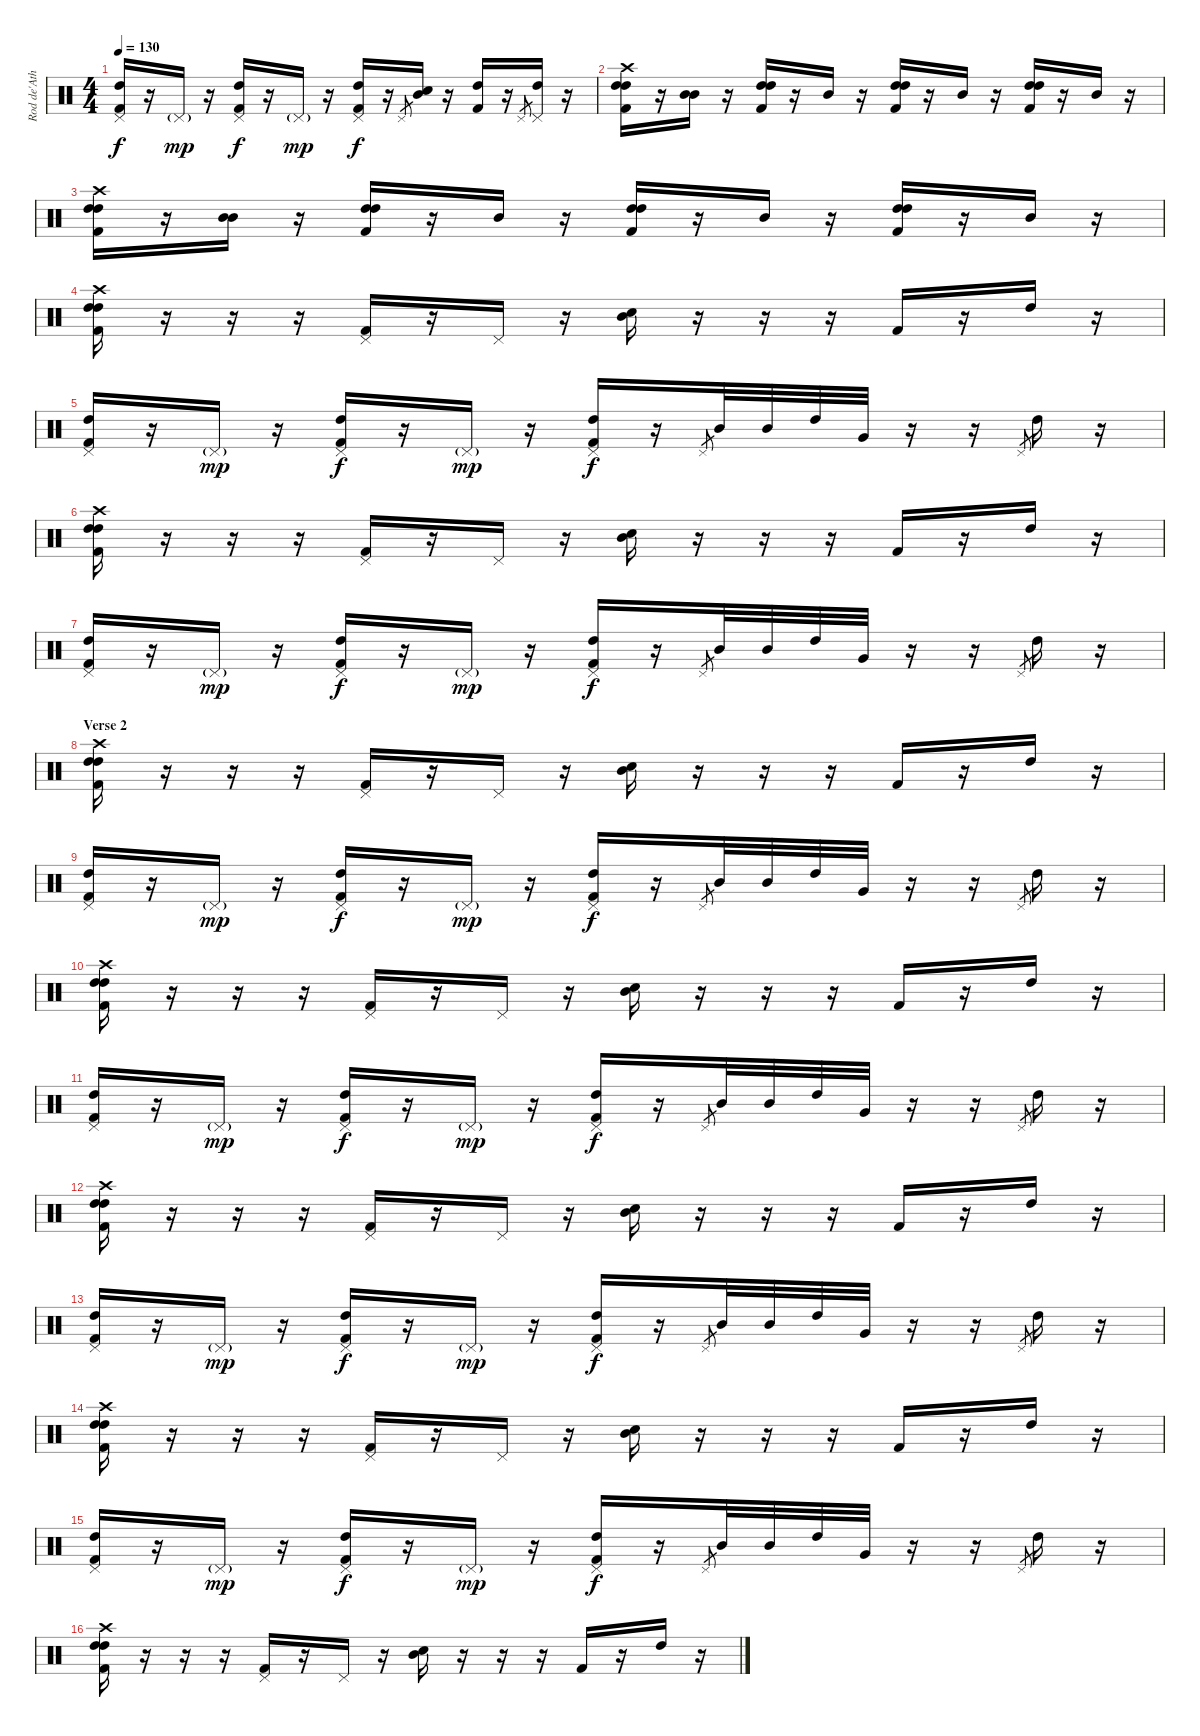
\track ("Rod de'Ath" "Rod de'Ath") {instrument percussion}
\staff {score}
\articulation defaults
\ts (4 4)
\tempo 130
\clef neutral
\ks c
("Pedal Hi-Hat (hit)" "High Tom (hit)" "Kick (hit) 2").16{dy f} r.16 "Pedal Hi-Hat (hit)"{g}.16{dy mp} r.16 ("Pedal Hi-Hat (hit)" "High Tom (hit)" "Kick (hit) 2").16{dy f} r.16 "Pedal Hi-Hat (hit)"{g}.16{dy mp} r.16 ("Pedal Hi-Hat (hit)" "High Tom (hit)" "Kick (hit) 2").16{dy f} r.16 "Pedal Hi-Hat (hit)".8{gr} ("Electric Snare (hit)" "Mid Tom (hit)").16 r.16 ("High Tom (hit)" "Kick (hit) 2").16 r.16 "Pedal Hi-Hat (hit)".8{gr} ("Pedal Hi-Hat (hit)" "High Tom (hit)").16 r.16 |
("Crash high (hit)" "High Tom (hit)" "High Tom (hit)" "Kick (hit) 2").16 r.16 ("Mid Tom (hit)" "Mid Tom (hit)").16 r.16 ("High Tom (hit)" "High Tom (hit)" "Kick (hit) 2").16 r.16 "Mid Tom (hit)".16 r.16 ("High Tom (hit)" "High Tom (hit)" "Kick (hit) 2").16 r.16 "Mid Tom (hit)".16 r.16 ("High Tom (hit)" "High Tom (hit)" "Kick (hit) 2").16 r.16 "Mid Tom (hit)".16 r.16 |
("Crash high (hit)" "High Tom (hit)" "High Tom (hit)" "Kick (hit) 2").16 r.16 ("Mid Tom (hit)" "Mid Tom (hit)").16 r.16 ("High Tom (hit)" "High Tom (hit)" "Kick (hit) 2").16 r.16 "Mid Tom (hit)".16 r.16 ("High Tom (hit)" "High Tom (hit)" "Kick (hit) 2").16 r.16 "Mid Tom (hit)".16 r.16 ("High Tom (hit)" "High Tom (hit)" "Kick (hit) 2").16 r.16 "Mid Tom (hit)".16 r.16 |
("Crash high (hit)" "High Tom (hit)" "High Tom (hit)" "Kick (hit) 2").16 r.16 r.16 r.16 ("Pedal Hi-Hat (hit)" "Kick (hit) 2").16 r.16 "Pedal Hi-Hat (hit)".16 r.16 ("Electric Snare (hit)" "Mid Tom (hit)").16 r.16 r.16 r.16 "Kick (hit) 2".16 r.16 "High Tom (hit)".16 r.16 |
("Pedal Hi-Hat (hit)" "High Tom (hit)" "Kick (hit) 2").16 r.16 "Pedal Hi-Hat (hit)"{g}.16{dy mp} r.16 ("Pedal Hi-Hat (hit)" "High Tom (hit)" "Kick (hit) 2").16{dy f} r.16 "Pedal Hi-Hat (hit)"{g}.16{dy mp} r.16 ("Pedal Hi-Hat (hit)" "High Tom (hit)" "Kick (hit) 2").16{dy f} r.16 "Pedal Hi-Hat (hit)".8{gr} "Mid Tom (hit)".32 "Mid Tom (hit)".32 "High Tom (hit)".32 "Very Low Tom (hit)".32 r.16 r.16 "Pedal Hi-Hat (hit)".8{gr} "High Tom (hit)".16 r.16 |
("Crash high (hit)" "High Tom (hit)" "High Tom (hit)" "Kick (hit) 2").16 r.16 r.16 r.16 ("Pedal Hi-Hat (hit)" "Kick (hit) 2").16 r.16 "Pedal Hi-Hat (hit)".16 r.16 ("Electric Snare (hit)" "Mid Tom (hit)").16 r.16 r.16 r.16 "Kick (hit) 2".16 r.16 "High Tom (hit)".16 r.16 |
("Pedal Hi-Hat (hit)" "High Tom (hit)" "Kick (hit) 2").16 r.16 "Pedal Hi-Hat (hit)"{g}.16{dy mp} r.16 ("Pedal Hi-Hat (hit)" "High Tom (hit)" "Kick (hit) 2").16{dy f} r.16 "Pedal Hi-Hat (hit)"{g}.16{dy mp} r.16 ("Pedal Hi-Hat (hit)" "High Tom (hit)" "Kick (hit) 2").16{dy f} r.16 "Pedal Hi-Hat (hit)".8{gr} "Mid Tom (hit)".32 "Mid Tom (hit)".32 "High Tom (hit)".32 "Very Low Tom (hit)".32 r.16 r.16 "Pedal Hi-Hat (hit)".8{gr} "High Tom (hit)".16 r.16 |
\section ("" "Verse 2")
("Crash high (hit)" "High Tom (hit)" "High Tom (hit)" "Kick (hit) 2").16 r.16 r.16 r.16 ("Pedal Hi-Hat (hit)" "Kick (hit) 2").16 r.16 "Pedal Hi-Hat (hit)".16 r.16 ("Electric Snare (hit)" "Mid Tom (hit)").16 r.16 r.16 r.16 "Kick (hit) 2".16 r.16 "High Tom (hit)".16 r.16 |
("Pedal Hi-Hat (hit)" "High Tom (hit)" "Kick (hit) 2").16 r.16 "Pedal Hi-Hat (hit)"{g}.16{dy mp} r.16 ("Pedal Hi-Hat (hit)" "High Tom (hit)" "Kick (hit) 2").16{dy f} r.16 "Pedal Hi-Hat (hit)"{g}.16{dy mp} r.16 ("Pedal Hi-Hat (hit)" "High Tom (hit)" "Kick (hit) 2").16{dy f} r.16 "Pedal Hi-Hat (hit)".8{gr} "Mid Tom (hit)".32 "Mid Tom (hit)".32 "High Tom (hit)".32 "Very Low Tom (hit)".32 r.16 r.16 "Pedal Hi-Hat (hit)".8{gr} "High Tom (hit)".16 r.16 |
("Crash high (hit)" "High Tom (hit)" "High Tom (hit)" "Kick (hit) 2").16 r.16 r.16 r.16 ("Pedal Hi-Hat (hit)" "Kick (hit) 2").16 r.16 "Pedal Hi-Hat (hit)".16 r.16 ("Electric Snare (hit)" "Mid Tom (hit)").16 r.16 r.16 r.16 "Kick (hit) 2".16 r.16 "High Tom (hit)".16 r.16 |
("Pedal Hi-Hat (hit)" "High Tom (hit)" "Kick (hit) 2").16 r.16 "Pedal Hi-Hat (hit)"{g}.16{dy mp} r.16 ("Pedal Hi-Hat (hit)" "High Tom (hit)" "Kick (hit) 2").16{dy f} r.16 "Pedal Hi-Hat (hit)"{g}.16{dy mp} r.16 ("Pedal Hi-Hat (hit)" "High Tom (hit)" "Kick (hit) 2").16{dy f} r.16 "Pedal Hi-Hat (hit)".8{gr} "Mid Tom (hit)".32 "Mid Tom (hit)".32 "High Tom (hit)".32 "Very Low Tom (hit)".32 r.16 r.16 "Pedal Hi-Hat (hit)".8{gr} "High Tom (hit)".16 r.16 |
("Crash high (hit)" "High Tom (hit)" "High Tom (hit)" "Kick (hit) 2").16 r.16 r.16 r.16 ("Pedal Hi-Hat (hit)" "Kick (hit) 2").16 r.16 "Pedal Hi-Hat (hit)".16 r.16 ("Electric Snare (hit)" "Mid Tom (hit)").16 r.16 r.16 r.16 "Kick (hit) 2".16 r.16 "High Tom (hit)".16 r.16 |
("Pedal Hi-Hat (hit)" "High Tom (hit)" "Kick (hit) 2").16 r.16 "Pedal Hi-Hat (hit)"{g}.16{dy mp} r.16 ("Pedal Hi-Hat (hit)" "High Tom (hit)" "Kick (hit) 2").16{dy f} r.16 "Pedal Hi-Hat (hit)"{g}.16{dy mp} r.16 ("Pedal Hi-Hat (hit)" "High Tom (hit)" "Kick (hit) 2").16{dy f} r.16 "Pedal Hi-Hat (hit)".8{gr} "Mid Tom (hit)".32 "Mid Tom (hit)".32 "High Tom (hit)".32 "Very Low Tom (hit)".32 r.16 r.16 "Pedal Hi-Hat (hit)".8{gr} "High Tom (hit)".16 r.16 |
("Crash high (hit)" "High Tom (hit)" "High Tom (hit)" "Kick (hit) 2").16 r.16 r.16 r.16 ("Pedal Hi-Hat (hit)" "Kick (hit) 2").16 r.16 "Pedal Hi-Hat (hit)".16 r.16 ("Electric Snare (hit)" "Mid Tom (hit)").16 r.16 r.16 r.16 "Kick (hit) 2".16 r.16 "High Tom (hit)".16 r.16 |
("Pedal Hi-Hat (hit)" "High Tom (hit)" "Kick (hit) 2").16 r.16 "Pedal Hi-Hat (hit)"{g}.16{dy mp} r.16 ("Pedal Hi-Hat (hit)" "High Tom (hit)" "Kick (hit) 2").16{dy f} r.16 "Pedal Hi-Hat (hit)"{g}.16{dy mp} r.16 ("Pedal Hi-Hat (hit)" "High Tom (hit)" "Kick (hit) 2").16{dy f} r.16 "Pedal Hi-Hat (hit)".8{gr} "Mid Tom (hit)".32 "Mid Tom (hit)".32 "High Tom (hit)".32 "Very Low Tom (hit)".32 r.16 r.16 "Pedal Hi-Hat (hit)".8{gr} "High Tom (hit)".16 r.16 |
("Crash high (hit)" "High Tom (hit)" "High Tom (hit)" "Kick (hit) 2").16 r.16 r.16 r.16 ("Pedal Hi-Hat (hit)" "Kick (hit) 2").16 r.16 "Pedal Hi-Hat (hit)".16 r.16 ("Electric Snare (hit)" "Mid Tom (hit)").16 r.16 r.16 r.16 "Kick (hit) 2".16 r.16 "High Tom (hit)".16 r.16
